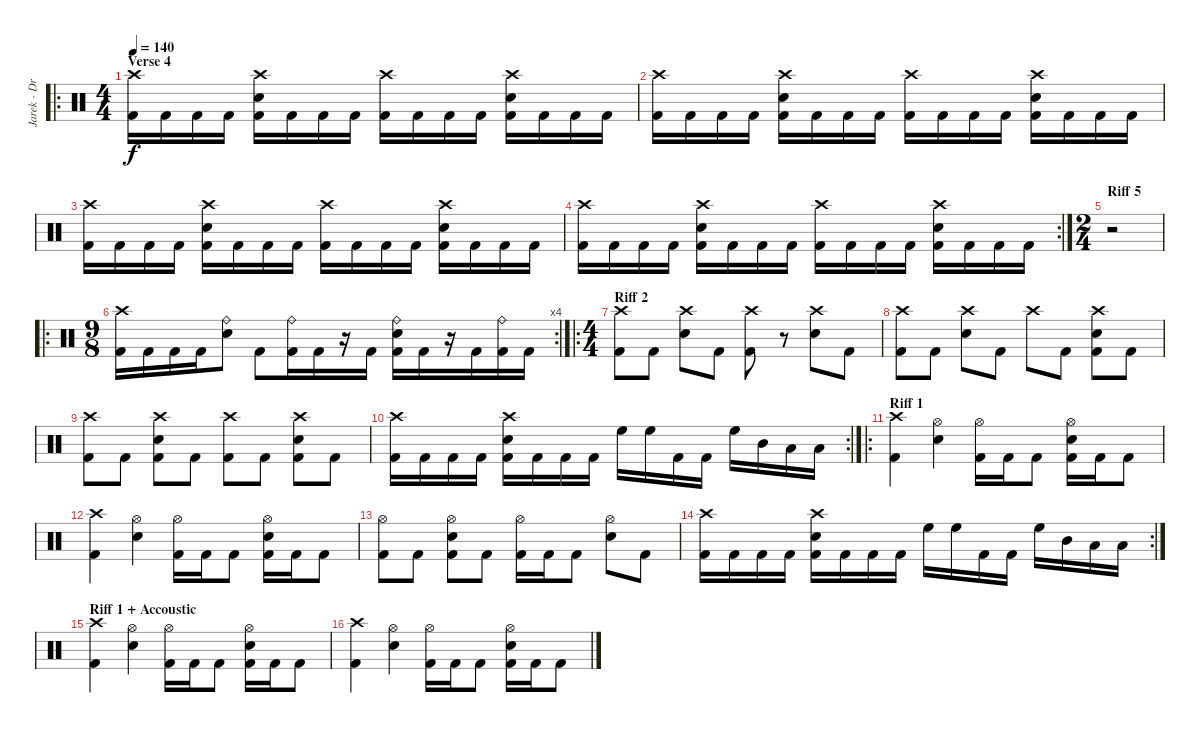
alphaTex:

\track ("Jarek - Drums" "Jarek - Dr") {instrument percussion}
\staff {score}
\articulation defaults
\ro
\ts (4 4)
\section ("" "Verse 4")
\tempo 140
\clef neutral
\ks c
("Crash high (hit)" "Kick (hit) 2").16{dy f} "Kick (hit) 2".16 "Kick (hit) 2".16 "Kick (hit) 2".16 ("Crash high (hit)" "Snare (hit) 2" "Kick (hit) 2").16 "Kick (hit) 2".16 "Kick (hit) 2".16 "Kick (hit) 2".16 ("Crash high (hit)" "Kick (hit) 2").16 "Kick (hit) 2".16 "Kick (hit) 2".16 "Kick (hit) 2".16 ("Crash high (hit)" "Snare (hit) 2" "Kick (hit) 2").16 "Kick (hit) 2".16 "Kick (hit) 2".16 "Kick (hit) 2".16 |
("Crash high (hit)" "Kick (hit) 2").16 "Kick (hit) 2".16 "Kick (hit) 2".16 "Kick (hit) 2".16 ("Crash high (hit)" "Snare (hit) 2" "Kick (hit) 2").16 "Kick (hit) 2".16 "Kick (hit) 2".16 "Kick (hit) 2".16 ("Crash high (hit)" "Kick (hit) 2").16 "Kick (hit) 2".16 "Kick (hit) 2".16 "Kick (hit) 2".16 ("Crash high (hit)" "Snare (hit) 2" "Kick (hit) 2").16 "Kick (hit) 2".16 "Kick (hit) 2".16 "Kick (hit) 2".16 |
("Crash high (hit)" "Kick (hit) 2").16 "Kick (hit) 2".16 "Kick (hit) 2".16 "Kick (hit) 2".16 ("Crash high (hit)" "Snare (hit) 2" "Kick (hit) 2").16 "Kick (hit) 2".16 "Kick (hit) 2".16 "Kick (hit) 2".16 ("Crash high (hit)" "Kick (hit) 2").16 "Kick (hit) 2".16 "Kick (hit) 2".16 "Kick (hit) 2".16 ("Crash high (hit)" "Snare (hit) 2" "Kick (hit) 2").16 "Kick (hit) 2".16 "Kick (hit) 2".16 "Kick (hit) 2".16 |
\rc 2
("Crash high (hit)" "Kick (hit) 2").16 "Kick (hit) 2".16 "Kick (hit) 2".16 "Kick (hit) 2".16 ("Crash high (hit)" "Snare (hit) 2" "Kick (hit) 2").16 "Kick (hit) 2".16 "Kick (hit) 2".16 "Kick (hit) 2".16 ("Crash high (hit)" "Kick (hit) 2").16 "Kick (hit) 2".16 "Kick (hit) 2".16 "Kick (hit) 2".16 ("Crash high (hit)" "Snare (hit) 2" "Kick (hit) 2").16 "Kick (hit) 2".16 "Kick (hit) 2".16 "Kick (hit) 2".16 |
\ts (2 4)
\section ("" "Riff 5")
r.2 |
\ro
\rc 4
\ts (9 8)
("Crash high (hit)" "Kick (hit) 2").16 "Kick (hit) 2".16 "Kick (hit) 2".16 "Kick (hit) 2".16 ("Ride (bell)" "Snare (hit) 2").8 "Kick (hit) 2".8 ("Ride (bell)" "Kick (hit) 2").16 "Kick (hit) 2".16 r.16 "Kick (hit) 2".16 ("Ride (bell)" "Snare (hit) 2" "Kick (hit) 2").16 "Kick (hit) 2".16 r.16 "Kick (hit) 2".16 ("Ride (bell)" "Kick (hit) 2").16 "Kick (hit) 2".16 |
\ro
\ts (4 4)
\section ("" "Riff 2")
("Crash high (hit)" "Kick (hit) 2").8 "Kick (hit) 2".8 ("Crash high (hit)" "Snare (hit) 2").8 "Kick (hit) 2".8 ("Crash high (hit)" "Kick (hit) 2").8 r.8 ("Crash high (hit)" "Snare (hit) 2").8 "Kick (hit) 2".8 |
("Crash high (hit)" "Kick (hit) 2").8 "Kick (hit) 2".8 ("Crash high (hit)" "Snare (hit) 2").8 "Kick (hit) 2".8 "Crash high (hit)".8 "Kick (hit) 2".8 ("Crash high (hit)" "Snare (hit) 2" "Kick (hit) 2").8 "Kick (hit) 2".8 |
("Crash high (hit)" "Kick (hit) 2").8 "Kick (hit) 2".8 ("Crash high (hit)" "Snare (hit) 2" "Kick (hit) 2").8 "Kick (hit) 2".8 ("Crash high (hit)" "Kick (hit) 2").8 "Kick (hit) 2".8 ("Crash high (hit)" "Snare (hit) 2" "Kick (hit) 2").8 "Kick (hit) 2".8 |
\rc 2
("Crash high (hit)" "Kick (hit) 2").16 "Kick (hit) 2".16 "Kick (hit) 2".16 "Kick (hit) 2".16 ("Crash high (hit)" "Snare (hit) 2" "Kick (hit) 2").16 "Kick (hit) 2".16 "Kick (hit) 2".16 "Kick (hit) 2".16 "High Floor Tom (hit)".16 "High Floor Tom (hit)".16 "Kick (hit) 2".16 "Kick (hit) 2".16 "High Floor Tom (hit)".16 "Mid Tom (hit)".16 "Low Tom (hit)".16 "Low Floor Tom (hit)".16 |
\ro
\section ("" "Riff 1")
("Crash high (hit)" "Kick (hit) 2").4 ("Hi-Hat (open)" "Snare (hit) 2").4 ("Hi-Hat (open)" "Kick (hit) 2").16 "Kick (hit) 2".16 "Kick (hit) 2".8 ("Hi-Hat (open)" "Snare (hit) 2" "Kick (hit) 2").16 "Kick (hit) 2".16 "Kick (hit) 2".8 |
("Crash high (hit)" "Kick (hit) 2").4 ("Hi-Hat (open)" "Snare (hit) 2").4 ("Hi-Hat (open)" "Kick (hit) 2").16 "Kick (hit) 2".16 "Kick (hit) 2".8 ("Hi-Hat (open)" "Snare (hit) 2" "Kick (hit) 2").16 "Kick (hit) 2".16 "Kick (hit) 2".8 |
("Hi-Hat (open)" "Kick (hit) 2").8 "Kick (hit) 2".8 ("Hi-Hat (open)" "Snare (hit) 2" "Kick (hit) 2").8 "Kick (hit) 2".8 ("Hi-Hat (open)" "Kick (hit) 2").16 "Kick (hit) 2".16 "Kick (hit) 2".8 ("Hi-Hat (open)" "Snare (hit) 2").8 "Kick (hit) 2".8 |
\rc 2
("Crash high (hit)" "Kick (hit) 2").16 "Kick (hit) 2".16 "Kick (hit) 2".16 "Kick (hit) 2".16 ("Crash high (hit)" "Snare (hit) 2" "Kick (hit) 2").16 "Kick (hit) 2".16 "Kick (hit) 2".16 "Kick (hit) 2".16 "High Floor Tom (hit)".16 "High Floor Tom (hit)".16 "Kick (hit) 2".16 "Kick (hit) 2".16 "High Floor Tom (hit)".16 "Mid Tom (hit)".16 "Low Tom (hit)".16 "Low Floor Tom (hit)".16 |
\section ("" "Riff 1 + Accoustic")
("Crash high (hit)" "Kick (hit) 2").4 ("Hi-Hat (open)" "Snare (hit) 2").4 ("Hi-Hat (open)" "Kick (hit) 2").16 "Kick (hit) 2".16 "Kick (hit) 2".8 ("Hi-Hat (open)" "Snare (hit) 2" "Kick (hit) 2").16 "Kick (hit) 2".16 "Kick (hit) 2".8 |
("Crash high (hit)" "Kick (hit) 2").4 ("Hi-Hat (open)" "Snare (hit) 2").4 ("Hi-Hat (open)" "Kick (hit) 2").16 "Kick (hit) 2".16 "Kick (hit) 2".8 ("Hi-Hat (open)" "Snare (hit) 2" "Kick (hit) 2").16 "Kick (hit) 2".16 "Kick (hit) 2".8
